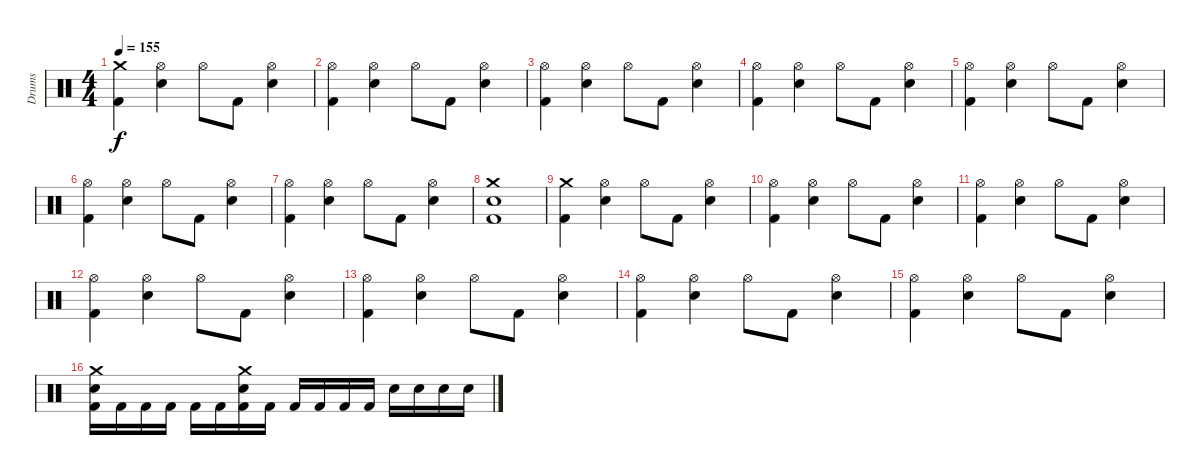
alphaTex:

\track ("Drums" "Drums") {instrument percussion}
\staff {score}
\articulation defaults
\ts (4 4)
\tempo 155
\clef neutral
\ks c
("Crash medium (hit)" "Kick (hit) 2").4{dy f} ("Hi-Hat (open)" "Snare (hit) 2").4 "Hi-Hat (open)".8 "Kick (hit) 2".8 ("Hi-Hat (open)" "Snare (hit) 2").4 |
("Hi-Hat (open)" "Kick (hit) 2").4 ("Hi-Hat (open)" "Snare (hit) 2").4 "Hi-Hat (open)".8 "Kick (hit) 2".8 ("Hi-Hat (open)" "Snare (hit) 2").4 |
("Hi-Hat (open)" "Kick (hit) 2").4 ("Hi-Hat (open)" "Snare (hit) 2").4 "Hi-Hat (open)".8 "Kick (hit) 2".8 ("Hi-Hat (open)" "Snare (hit) 2").4 |
("Hi-Hat (open)" "Kick (hit) 2").4 ("Hi-Hat (open)" "Snare (hit) 2").4 "Hi-Hat (open)".8 "Kick (hit) 2".8 ("Hi-Hat (open)" "Snare (hit) 2").4 |
("Hi-Hat (open)" "Kick (hit) 2").4 ("Hi-Hat (open)" "Snare (hit) 2").4 "Hi-Hat (open)".8 "Kick (hit) 2".8 ("Hi-Hat (open)" "Snare (hit) 2").4 |
("Hi-Hat (open)" "Kick (hit) 2").4 ("Hi-Hat (open)" "Snare (hit) 2").4 "Hi-Hat (open)".8 "Kick (hit) 2".8 ("Hi-Hat (open)" "Snare (hit) 2").4 |
("Hi-Hat (open)" "Kick (hit) 2").4 ("Hi-Hat (open)" "Snare (hit) 2").4 "Hi-Hat (open)".8 "Kick (hit) 2".8 ("Hi-Hat (open)" "Snare (hit) 2").4 |
("Crash medium (hit)" "Snare (hit) 2" "Kick (hit) 2").1 |
("Crash medium (hit)" "Kick (hit) 2").4 ("Hi-Hat (open)" "Snare (hit) 2").4 "Hi-Hat (open)".8 "Kick (hit) 2".8 ("Hi-Hat (open)" "Snare (hit) 2").4 |
("Hi-Hat (open)" "Kick (hit) 2").4 ("Hi-Hat (open)" "Snare (hit) 2").4 "Hi-Hat (open)".8 "Kick (hit) 2".8 ("Hi-Hat (open)" "Snare (hit) 2").4 |
("Hi-Hat (open)" "Kick (hit) 2").4 ("Hi-Hat (open)" "Snare (hit) 2").4 "Hi-Hat (open)".8 "Kick (hit) 2".8 ("Hi-Hat (open)" "Snare (hit) 2").4 |
("Hi-Hat (open)" "Kick (hit) 2").4 ("Hi-Hat (open)" "Snare (hit) 2").4 "Hi-Hat (open)".8 "Kick (hit) 2".8 ("Hi-Hat (open)" "Snare (hit) 2").4 |
("Hi-Hat (open)" "Kick (hit) 2").4 ("Hi-Hat (open)" "Snare (hit) 2").4 "Hi-Hat (open)".8 "Kick (hit) 2".8 ("Hi-Hat (open)" "Snare (hit) 2").4 |
("Hi-Hat (open)" "Kick (hit) 2").4 ("Hi-Hat (open)" "Snare (hit) 2").4 "Hi-Hat (open)".8 "Kick (hit) 2".8 ("Hi-Hat (open)" "Snare (hit) 2").4 |
("Hi-Hat (open)" "Kick (hit) 2").4 ("Hi-Hat (open)" "Snare (hit) 2").4 "Hi-Hat (open)".8 "Kick (hit) 2".8 ("Hi-Hat (open)" "Snare (hit) 2").4 |
("Crash medium (hit)" "Snare (hit) 2" "Kick (hit) 2").16 "Kick (hit) 2".16 "Kick (hit) 2".16 "Kick (hit) 2".16 "Kick (hit) 2".16 "Kick (hit) 2".16 ("Crash medium (hit)" "Snare (hit) 2" "Kick (hit) 2").16 "Kick (hit) 2".16 "Kick (hit) 2".16 "Kick (hit) 2".16 "Kick (hit) 2".16 "Kick (hit) 2".16 "Snare (hit) 2".16 "Snare (hit) 2".16 "Snare (hit) 2".16 "Snare (hit) 2".16
